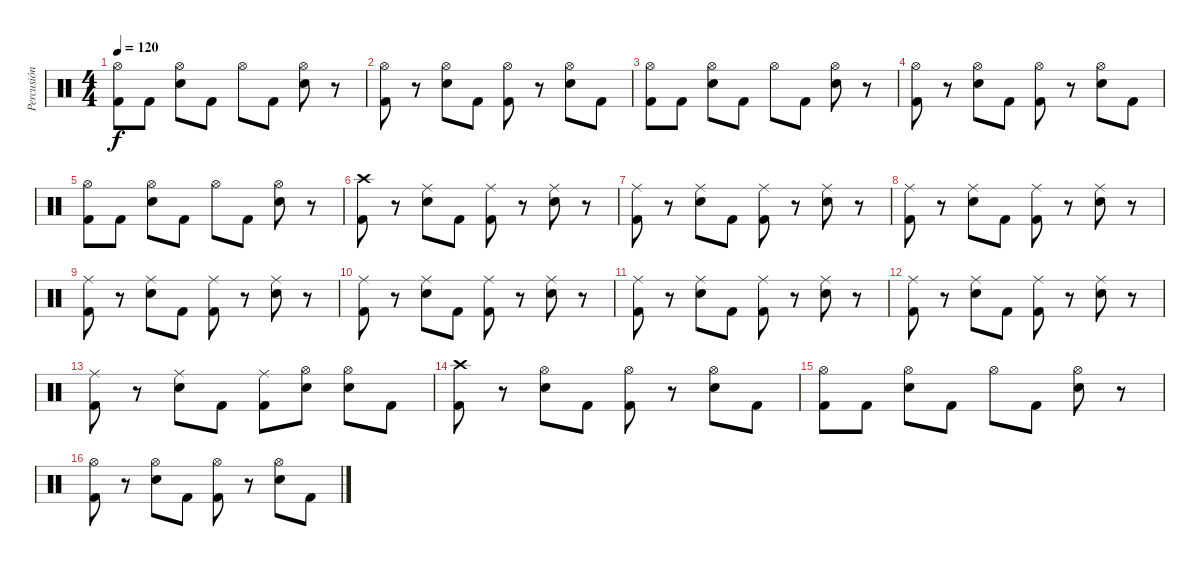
\track ("Percusión" "Percusión") {instrument percussion}
\staff {score}
\articulation defaults
\ts (4 4)
\tempo 120
\clef neutral
\ks c
("Hi-Hat (open)" "Kick (hit) 2").8{dy f} "Kick (hit) 2".8 ("Hi-Hat (open)" "Snare (hit) 2").8 "Kick (hit) 2".8 "Hi-Hat (open)".8 "Kick (hit) 2".8 ("Hi-Hat (open)" "Snare (hit) 2").8 r.8 |
("Hi-Hat (open)" "Kick (hit) 2").8 r.8 ("Hi-Hat (open)" "Snare (hit) 2").8 "Kick (hit) 2".8 ("Hi-Hat (open)" "Kick (hit) 2").8 r.8 ("Hi-Hat (open)" "Snare (hit) 2").8 "Kick (hit) 2".8 |
("Hi-Hat (open)" "Kick (hit) 2").8 "Kick (hit) 2".8 ("Hi-Hat (open)" "Snare (hit) 2").8 "Kick (hit) 2".8 "Hi-Hat (open)".8 "Kick (hit) 2".8 ("Hi-Hat (open)" "Snare (hit) 2").8 r.8 |
("Hi-Hat (open)" "Kick (hit) 2").8 r.8 ("Hi-Hat (open)" "Snare (hit) 2").8 "Kick (hit) 2".8 ("Hi-Hat (open)" "Kick (hit) 2").8 r.8 ("Hi-Hat (open)" "Snare (hit) 2").8 "Kick (hit) 2".8 |
("Hi-Hat (open)" "Kick (hit) 2").8 "Kick (hit) 2".8 ("Hi-Hat (open)" "Snare (hit) 2").8 "Kick (hit) 2".8 "Hi-Hat (open)".8 "Kick (hit) 2".8 ("Hi-Hat (open)" "Snare (hit) 2").8 r.8 |
("Crash high (hit)" "Kick (hit) 2").8 r.8 ("Ride (middle)" "Snare (hit) 2").8 "Kick (hit) 2".8 ("Ride (middle)" "Kick (hit) 2").8 r.8 ("Ride (middle)" "Snare (hit) 2").8 r.8 |
("Ride (middle)" "Kick (hit) 2").8 r.8 ("Ride (middle)" "Snare (hit) 2").8 "Kick (hit) 2".8 ("Ride (middle)" "Kick (hit) 2").8 r.8 ("Ride (middle)" "Snare (hit) 2").8 r.8 |
("Ride (middle)" "Kick (hit) 2").8 r.8 ("Ride (middle)" "Snare (hit) 2").8 "Kick (hit) 2".8 ("Ride (middle)" "Kick (hit) 2").8 r.8 ("Ride (middle)" "Snare (hit) 2").8 r.8 |
("Ride (middle)" "Kick (hit) 2").8 r.8 ("Ride (middle)" "Snare (hit) 2").8 "Kick (hit) 2".8 ("Ride (middle)" "Kick (hit) 2").8 r.8 ("Ride (middle)" "Snare (hit) 2").8 r.8 |
("Ride (middle)" "Kick (hit) 2").8 r.8 ("Ride (middle)" "Snare (hit) 2").8 "Kick (hit) 2".8 ("Ride (middle)" "Kick (hit) 2").8 r.8 ("Ride (middle)" "Snare (hit) 2").8 r.8 |
("Ride (middle)" "Kick (hit) 2").8 r.8 ("Ride (middle)" "Snare (hit) 2").8 "Kick (hit) 2".8 ("Ride (middle)" "Kick (hit) 2").8 r.8 ("Ride (middle)" "Snare (hit) 2").8 r.8 |
("Ride (middle)" "Kick (hit) 2").8 r.8 ("Ride (middle)" "Snare (hit) 2").8 "Kick (hit) 2".8 ("Ride (middle)" "Kick (hit) 2").8 r.8 ("Ride (middle)" "Snare (hit) 2").8 r.8 |
("Ride (middle)" "Kick (hit) 2").8 r.8 ("Ride (middle)" "Snare (hit) 2").8 "Kick (hit) 2".8 ("Ride (middle)" "Kick (hit) 2").8 ("Hi-Hat (open)" "Snare (hit) 2").8 ("Hi-Hat (open)" "Snare (hit) 2").8 "Kick (hit) 2".8 |
("Crash high (hit)" "Kick (hit) 2").8 r.8 ("Hi-Hat (open)" "Snare (hit) 2").8 "Kick (hit) 2".8 ("Hi-Hat (open)" "Kick (hit) 2").8 r.8 ("Hi-Hat (open)" "Snare (hit) 2").8 "Kick (hit) 2".8 |
("Hi-Hat (open)" "Kick (hit) 2").8 "Kick (hit) 2".8 ("Hi-Hat (open)" "Snare (hit) 2").8 "Kick (hit) 2".8 "Hi-Hat (open)".8 "Kick (hit) 2".8 ("Hi-Hat (open)" "Snare (hit) 2").8 r.8 |
("Hi-Hat (open)" "Kick (hit) 2").8 r.8 ("Hi-Hat (open)" "Snare (hit) 2").8 "Kick (hit) 2".8 ("Hi-Hat (open)" "Kick (hit) 2").8 r.8 ("Hi-Hat (open)" "Snare (hit) 2").8 "Kick (hit) 2".8
